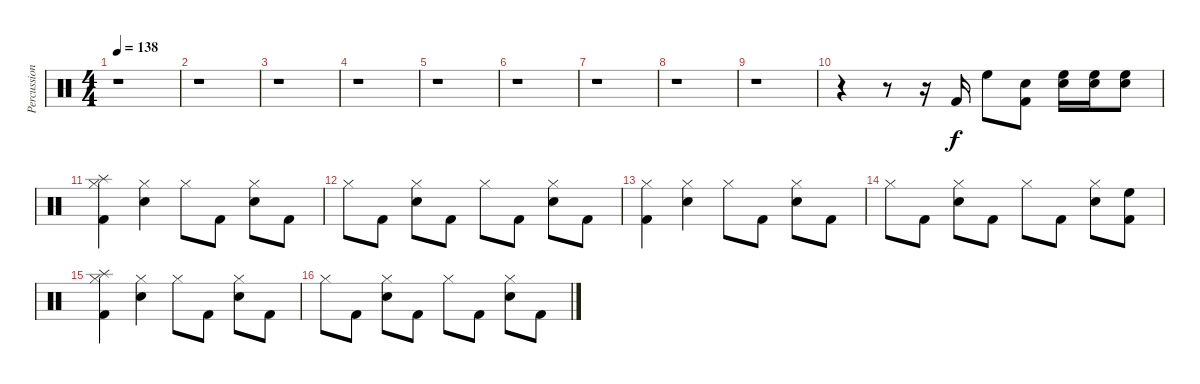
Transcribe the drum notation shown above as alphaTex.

\track ("Percussion" "Percussion") {instrument percussion}
\staff {score}
\articulation defaults
\ts (4 4)
\tempo 138
\clef neutral
\ks c
r.1{dy f} |
r.1 |
r.1 |
r.1 |
r.1 |
r.1 |
r.1 |
r.1 |
r.1 |
r.4 r.8 r.16 "Kick (hit) 2".16 "High Floor Tom (hit)".8 ("Kick (hit) 2" "Snare (hit) 2").8 ("High Floor Tom (hit)" "Snare (hit) 2").16 ("High Floor Tom (hit)" "Snare (hit) 2").16 ("High Floor Tom (hit)" "Snare (hit) 2").8 |
("Hi-Hat (closed)" "Kick (hit) 2" "Splash (hit)").4 ("Hi-Hat (closed)" "Snare (hit) 2").4 "Hi-Hat (closed)".8 "Kick (hit) 2".8 ("Hi-Hat (closed)" "Snare (hit) 2").8 "Kick (hit) 2".8 |
"Hi-Hat (closed)".8 "Kick (hit) 2".8 ("Hi-Hat (closed)" "Snare (hit) 2").8 "Kick (hit) 2".8 "Hi-Hat (closed)".8 "Kick (hit) 2".8 ("Hi-Hat (closed)" "Snare (hit) 2").8 "Kick (hit) 2".8 |
("Hi-Hat (closed)" "Kick (hit) 2").4 ("Hi-Hat (closed)" "Snare (hit) 2").4 "Hi-Hat (closed)".8 "Kick (hit) 2".8 ("Hi-Hat (closed)" "Snare (hit) 2").8 "Kick (hit) 2".8 |
"Hi-Hat (closed)".8 "Kick (hit) 2".8 ("Hi-Hat (closed)" "Snare (hit) 2").8 "Kick (hit) 2".8 "Hi-Hat (closed)".8 "Kick (hit) 2".8 ("Hi-Hat (closed)" "Snare (hit) 2").8 ("High Floor Tom (hit)" "Kick (hit) 2").8 |
("Hi-Hat (closed)" "Kick (hit) 2" "Splash (hit)").4 ("Hi-Hat (closed)" "Snare (hit) 2").4 "Hi-Hat (closed)".8 "Kick (hit) 2".8 ("Hi-Hat (closed)" "Snare (hit) 2").8 "Kick (hit) 2".8 |
"Hi-Hat (closed)".8 "Kick (hit) 2".8 ("Hi-Hat (closed)" "Snare (hit) 2").8 "Kick (hit) 2".8 "Hi-Hat (closed)".8 "Kick (hit) 2".8 ("Hi-Hat (closed)" "Snare (hit) 2").8 "Kick (hit) 2".8
